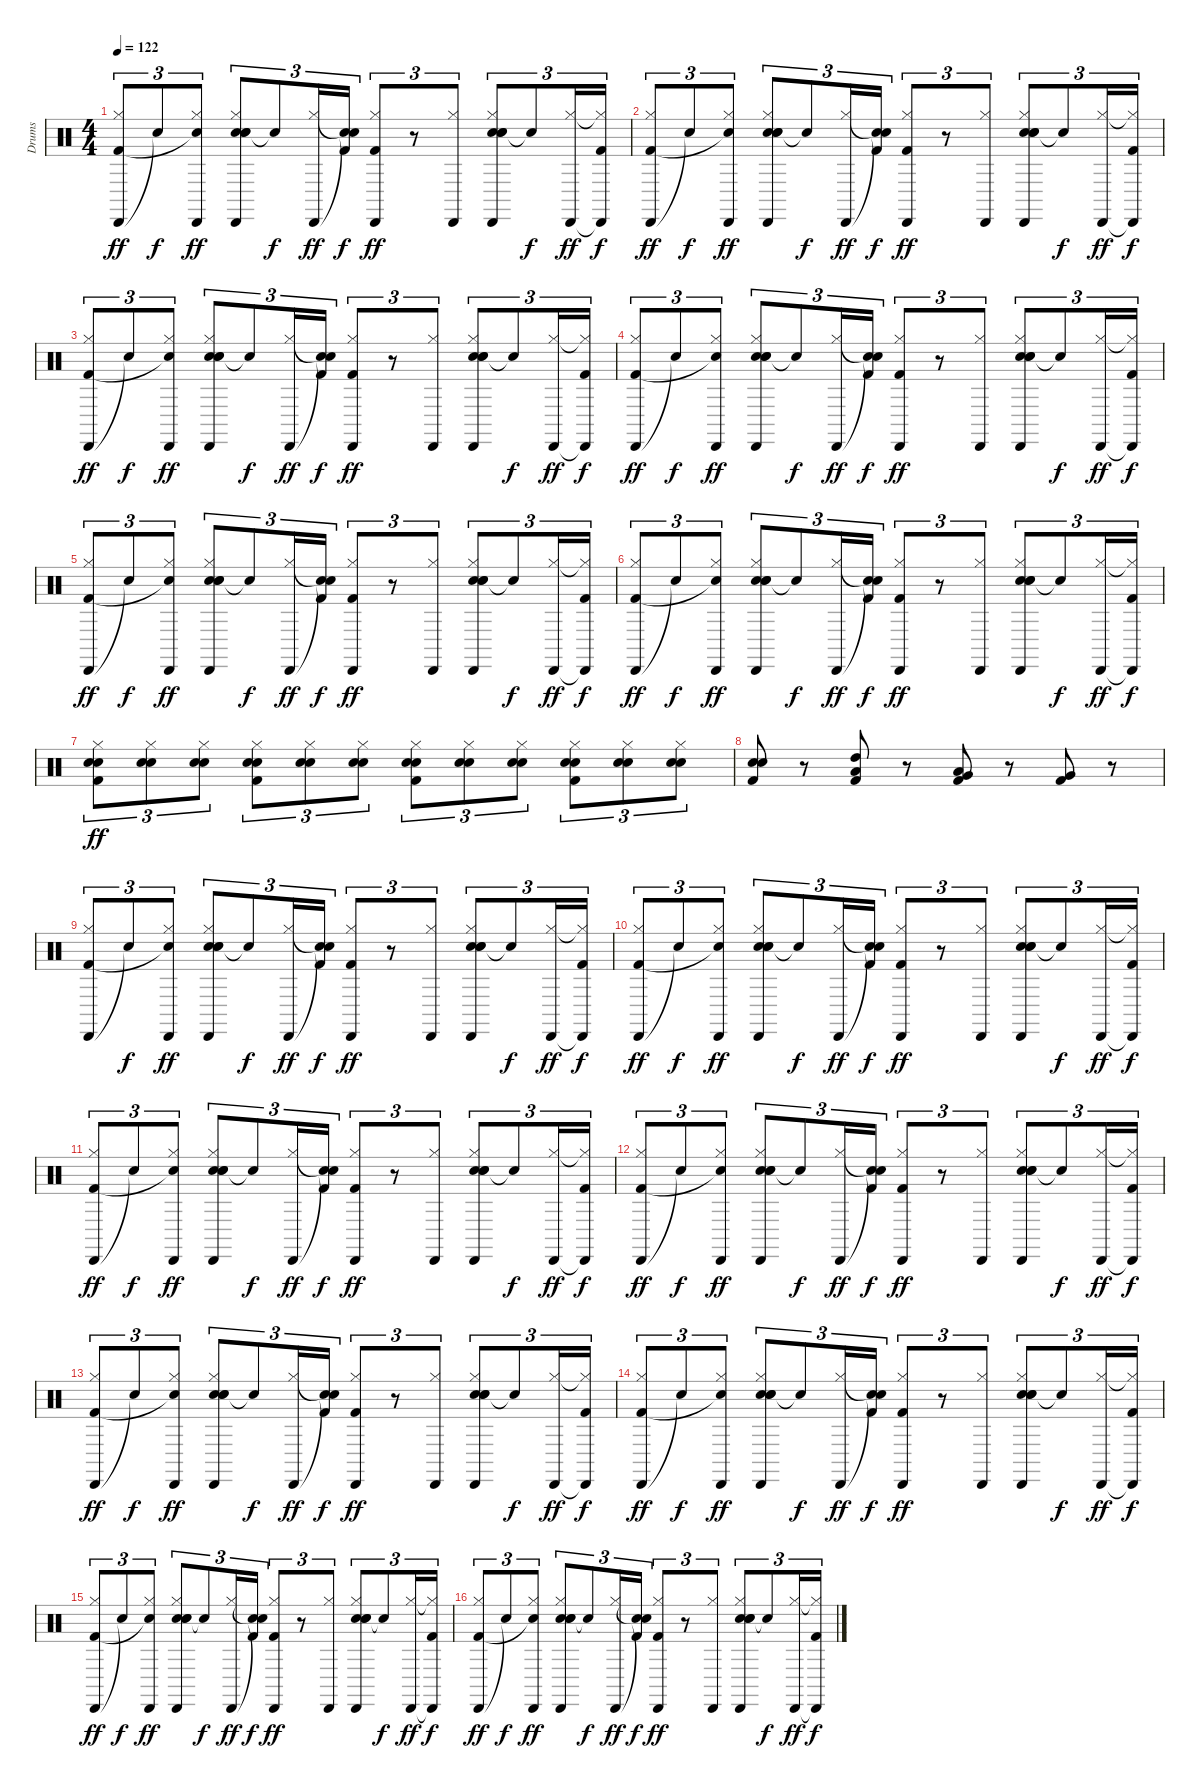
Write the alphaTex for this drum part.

\track ("Drums" "Drums") {instrument percussion}
\staff {score}
\articulation defaults
\ts (4 4)
\tempo 122
\clef neutral
\ks c
("Cabasa (hit)" "Hi-Hat (closed)" "Kick (hit) 2").8{tu (3 2) dy ff} "Snare (hit)"{t}.8{tu (3 2) dy f} ("Cabasa (hit)" "Hi-Hat (closed)" "Snare (hit)"{t}).8{tu (3 2) dy ff} ("Hand Clap (hit)" "Cabasa (hit)" "Hi-Hat (closed)" "Snare (hit) 2" "Hand Clap (hit)").8{tu (3 2)} "Snare (hit)"{t}.8{tu (3 2) dy f} ("Cabasa (hit)" "Hi-Hat (closed)").16{tu (3 2) dy ff} ("Snare (hit)"{t} "Snare (hit)"{t} "Kick (hit) 2").16{tu (3 2) dy f} ("Cabasa (hit)" "Hi-Hat (closed)" "Kick (hit) 2").8{tu (3 2) dy ff} r.8{tu (3 2)} ("Cabasa (hit)" "Hi-Hat (closed)").8{tu (3 2)} ("Hand Clap (hit)" "Cabasa (hit)" "Hi-Hat (closed)" "Snare (hit) 2" "Hand Clap (hit)").8{tu (3 2)} "Snare (hit)"{t}.8{tu (3 2) dy f} ("Cabasa (hit)" "Hi-Hat (closed)").16{tu (3 2) dy ff} ("Cabasa (hit)"{t} "Hi-Hat (closed)"{t} "Kick (hit) 2").16{tu (3 2) dy f} |
("Cabasa (hit)" "Hi-Hat (closed)" "Kick (hit) 2").8{tu (3 2) dy ff} "Snare (hit)"{t}.8{tu (3 2) dy f} ("Cabasa (hit)" "Hi-Hat (closed)" "Snare (hit)"{t}).8{tu (3 2) dy ff} ("Hand Clap (hit)" "Cabasa (hit)" "Hi-Hat (closed)" "Snare (hit) 2" "Hand Clap (hit)").8{tu (3 2)} "Snare (hit)"{t}.8{tu (3 2) dy f} ("Cabasa (hit)" "Hi-Hat (closed)").16{tu (3 2) dy ff} ("Snare (hit)"{t} "Snare (hit)"{t} "Kick (hit) 2").16{tu (3 2) dy f} ("Cabasa (hit)" "Hi-Hat (closed)" "Kick (hit) 2").8{tu (3 2) dy ff} r.8{tu (3 2)} ("Cabasa (hit)" "Hi-Hat (closed)").8{tu (3 2)} ("Hand Clap (hit)" "Cabasa (hit)" "Hi-Hat (closed)" "Snare (hit) 2" "Hand Clap (hit)").8{tu (3 2)} "Snare (hit)"{t}.8{tu (3 2) dy f} ("Cabasa (hit)" "Hi-Hat (closed)").16{tu (3 2) dy ff} ("Cabasa (hit)"{t} "Hi-Hat (closed)"{t} "Kick (hit) 2").16{tu (3 2) dy f} |
("Cabasa (hit)" "Hi-Hat (closed)" "Kick (hit) 2").8{tu (3 2) dy ff} "Snare (hit)"{t}.8{tu (3 2) dy f} ("Cabasa (hit)" "Hi-Hat (closed)" "Snare (hit)"{t}).8{tu (3 2) dy ff} ("Hand Clap (hit)" "Cabasa (hit)" "Hi-Hat (closed)" "Snare (hit) 2" "Hand Clap (hit)").8{tu (3 2)} "Snare (hit)"{t}.8{tu (3 2) dy f} ("Cabasa (hit)" "Hi-Hat (closed)").16{tu (3 2) dy ff} ("Snare (hit)"{t} "Snare (hit)"{t} "Kick (hit) 2").16{tu (3 2) dy f} ("Cabasa (hit)" "Hi-Hat (closed)" "Kick (hit) 2").8{tu (3 2) dy ff} r.8{tu (3 2)} ("Cabasa (hit)" "Hi-Hat (closed)").8{tu (3 2)} ("Hand Clap (hit)" "Cabasa (hit)" "Hi-Hat (closed)" "Snare (hit) 2" "Hand Clap (hit)").8{tu (3 2)} "Snare (hit)"{t}.8{tu (3 2) dy f} ("Cabasa (hit)" "Hi-Hat (closed)").16{tu (3 2) dy ff} ("Cabasa (hit)"{t} "Hi-Hat (closed)"{t} "Kick (hit) 2").16{tu (3 2) dy f} |
("Cabasa (hit)" "Hi-Hat (closed)" "Kick (hit) 2").8{tu (3 2) dy ff} "Snare (hit)"{t}.8{tu (3 2) dy f} ("Cabasa (hit)" "Hi-Hat (closed)" "Snare (hit)"{t}).8{tu (3 2) dy ff} ("Hand Clap (hit)" "Cabasa (hit)" "Hi-Hat (closed)" "Snare (hit) 2" "Hand Clap (hit)").8{tu (3 2)} "Snare (hit)"{t}.8{tu (3 2) dy f} ("Cabasa (hit)" "Hi-Hat (closed)").16{tu (3 2) dy ff} ("Snare (hit)"{t} "Snare (hit)"{t} "Kick (hit) 2").16{tu (3 2) dy f} ("Cabasa (hit)" "Hi-Hat (closed)" "Kick (hit) 2").8{tu (3 2) dy ff} r.8{tu (3 2)} ("Cabasa (hit)" "Hi-Hat (closed)").8{tu (3 2)} ("Hand Clap (hit)" "Cabasa (hit)" "Hi-Hat (closed)" "Snare (hit) 2" "Hand Clap (hit)").8{tu (3 2)} "Snare (hit)"{t}.8{tu (3 2) dy f} ("Cabasa (hit)" "Hi-Hat (closed)").16{tu (3 2) dy ff} ("Cabasa (hit)"{t} "Hi-Hat (closed)"{t} "Kick (hit) 2").16{tu (3 2) dy f} |
("Cabasa (hit)" "Hi-Hat (closed)" "Kick (hit) 2").8{tu (3 2) dy ff} "Snare (hit)"{t}.8{tu (3 2) dy f} ("Cabasa (hit)" "Hi-Hat (closed)" "Snare (hit)"{t}).8{tu (3 2) dy ff} ("Hand Clap (hit)" "Cabasa (hit)" "Hi-Hat (closed)" "Snare (hit) 2" "Hand Clap (hit)").8{tu (3 2)} "Snare (hit)"{t}.8{tu (3 2) dy f} ("Cabasa (hit)" "Hi-Hat (closed)").16{tu (3 2) dy ff} ("Snare (hit)"{t} "Snare (hit)"{t} "Kick (hit) 2").16{tu (3 2) dy f} ("Cabasa (hit)" "Hi-Hat (closed)" "Kick (hit) 2").8{tu (3 2) dy ff} r.8{tu (3 2)} ("Cabasa (hit)" "Hi-Hat (closed)").8{tu (3 2)} ("Hand Clap (hit)" "Cabasa (hit)" "Hi-Hat (closed)" "Snare (hit) 2" "Hand Clap (hit)").8{tu (3 2)} "Snare (hit)"{t}.8{tu (3 2) dy f} ("Cabasa (hit)" "Hi-Hat (closed)").16{tu (3 2) dy ff} ("Cabasa (hit)"{t} "Hi-Hat (closed)"{t} "Kick (hit) 2").16{tu (3 2) dy f} |
("Cabasa (hit)" "Hi-Hat (closed)" "Kick (hit) 2").8{tu (3 2) dy ff} "Snare (hit)"{t}.8{tu (3 2) dy f} ("Cabasa (hit)" "Hi-Hat (closed)" "Snare (hit)"{t}).8{tu (3 2) dy ff} ("Hand Clap (hit)" "Cabasa (hit)" "Hi-Hat (closed)" "Snare (hit) 2" "Hand Clap (hit)").8{tu (3 2)} "Snare (hit)"{t}.8{tu (3 2) dy f} ("Cabasa (hit)" "Hi-Hat (closed)").16{tu (3 2) dy ff} ("Snare (hit)"{t} "Snare (hit)"{t} "Kick (hit) 2").16{tu (3 2) dy f} ("Cabasa (hit)" "Hi-Hat (closed)" "Kick (hit) 2").8{tu (3 2) dy ff} r.8{tu (3 2)} ("Cabasa (hit)" "Hi-Hat (closed)").8{tu (3 2)} ("Hand Clap (hit)" "Cabasa (hit)" "Hi-Hat (closed)" "Snare (hit) 2" "Hand Clap (hit)").8{tu (3 2)} "Snare (hit)"{t}.8{tu (3 2) dy f} ("Cabasa (hit)" "Hi-Hat (closed)").16{tu (3 2) dy ff} ("Cabasa (hit)"{t} "Hi-Hat (closed)"{t} "Kick (hit) 2").16{tu (3 2) dy f} |
("Hand Clap (hit)" "Hi-Hat (closed)" "Snare (hit) 2" "Kick (hit) 2").8{tu (3 2) dy ff} ("Hand Clap (hit)" "Hi-Hat (closed)" "Snare (hit) 2").8{tu (3 2)} ("Hand Clap (hit)" "Hi-Hat (closed)" "Snare (hit) 2").8{tu (3 2)} ("Hand Clap (hit)" "Hi-Hat (closed)" "Snare (hit) 2" "Kick (hit) 2").8{tu (3 2)} ("Hand Clap (hit)" "Hi-Hat (closed)" "Snare (hit) 2").8{tu (3 2)} ("Hand Clap (hit)" "Hi-Hat (closed)" "Snare (hit) 2").8{tu (3 2)} ("Hand Clap (hit)" "Hi-Hat (closed)" "Snare (hit) 2" "Kick (hit) 2").8{tu (3 2)} ("Hand Clap (hit)" "Hi-Hat (closed)" "Snare (hit) 2").8{tu (3 2)} ("Hand Clap (hit)" "Hi-Hat (closed)" "Snare (hit) 2").8{tu (3 2)} ("Hand Clap (hit)" "Hi-Hat (closed)" "Snare (hit) 2" "Kick (hit) 2").8{tu (3 2)} ("Hand Clap (hit)" "Hi-Hat (closed)" "Snare (hit) 2").8{tu (3 2)} ("Hand Clap (hit)" "Hi-Hat (closed)" "Snare (hit) 2").8{tu (3 2)} |
("Hand Clap (hit)" "Snare (hit) 2" "Kick (hit) 2").8 r.8 ("High Tom (hit)" "Low Tom (hit)" "Kick (hit) 2").8 r.8 ("Low Tom (hit)" "Very Low Tom (hit)" "Kick (hit) 2").8 r.8 ("Very Low Tom (hit)" "Kick (hit) 2").8 r.8 |
("Cabasa (hit)" "Hi-Hat (closed)" "Kick (hit) 2").8{tu (3 2)} "Snare (hit)"{t}.8{tu (3 2) dy f} ("Cabasa (hit)" "Hi-Hat (closed)" "Snare (hit)"{t}).8{tu (3 2) dy ff} ("Hand Clap (hit)" "Cabasa (hit)" "Hi-Hat (closed)" "Snare (hit) 2" "Hand Clap (hit)").8{tu (3 2)} "Snare (hit)"{t}.8{tu (3 2) dy f} ("Cabasa (hit)" "Hi-Hat (closed)").16{tu (3 2) dy ff} ("Snare (hit)"{t} "Snare (hit)"{t} "Kick (hit) 2").16{tu (3 2) dy f} ("Cabasa (hit)" "Hi-Hat (closed)" "Kick (hit) 2").8{tu (3 2) dy ff} r.8{tu (3 2)} ("Cabasa (hit)" "Hi-Hat (closed)").8{tu (3 2)} ("Hand Clap (hit)" "Cabasa (hit)" "Hi-Hat (closed)" "Snare (hit) 2" "Hand Clap (hit)").8{tu (3 2)} "Snare (hit)"{t}.8{tu (3 2) dy f} ("Cabasa (hit)" "Hi-Hat (closed)").16{tu (3 2) dy ff} ("Cabasa (hit)"{t} "Hi-Hat (closed)"{t} "Kick (hit) 2").16{tu (3 2) dy f} |
("Cabasa (hit)" "Hi-Hat (closed)" "Kick (hit) 2").8{tu (3 2) dy ff} "Snare (hit)"{t}.8{tu (3 2) dy f} ("Cabasa (hit)" "Hi-Hat (closed)" "Snare (hit)"{t}).8{tu (3 2) dy ff} ("Hand Clap (hit)" "Cabasa (hit)" "Hi-Hat (closed)" "Snare (hit) 2" "Hand Clap (hit)").8{tu (3 2)} "Snare (hit)"{t}.8{tu (3 2) dy f} ("Cabasa (hit)" "Hi-Hat (closed)").16{tu (3 2) dy ff} ("Snare (hit)"{t} "Snare (hit)"{t} "Kick (hit) 2").16{tu (3 2) dy f} ("Cabasa (hit)" "Hi-Hat (closed)" "Kick (hit) 2").8{tu (3 2) dy ff} r.8{tu (3 2)} ("Cabasa (hit)" "Hi-Hat (closed)").8{tu (3 2)} ("Hand Clap (hit)" "Cabasa (hit)" "Hi-Hat (closed)" "Snare (hit) 2" "Hand Clap (hit)").8{tu (3 2)} "Snare (hit)"{t}.8{tu (3 2) dy f} ("Cabasa (hit)" "Hi-Hat (closed)").16{tu (3 2) dy ff} ("Cabasa (hit)"{t} "Hi-Hat (closed)"{t} "Kick (hit) 2").16{tu (3 2) dy f} |
("Cabasa (hit)" "Hi-Hat (closed)" "Kick (hit) 2").8{tu (3 2) dy ff} "Snare (hit)"{t}.8{tu (3 2) dy f} ("Cabasa (hit)" "Hi-Hat (closed)" "Snare (hit)"{t}).8{tu (3 2) dy ff} ("Hand Clap (hit)" "Cabasa (hit)" "Hi-Hat (closed)" "Snare (hit) 2" "Hand Clap (hit)").8{tu (3 2)} "Snare (hit)"{t}.8{tu (3 2) dy f} ("Cabasa (hit)" "Hi-Hat (closed)").16{tu (3 2) dy ff} ("Snare (hit)"{t} "Snare (hit)"{t} "Kick (hit) 2").16{tu (3 2) dy f} ("Cabasa (hit)" "Hi-Hat (closed)" "Kick (hit) 2").8{tu (3 2) dy ff} r.8{tu (3 2)} ("Cabasa (hit)" "Hi-Hat (closed)").8{tu (3 2)} ("Hand Clap (hit)" "Cabasa (hit)" "Hi-Hat (closed)" "Snare (hit) 2" "Hand Clap (hit)").8{tu (3 2)} "Snare (hit)"{t}.8{tu (3 2) dy f} ("Cabasa (hit)" "Hi-Hat (closed)").16{tu (3 2) dy ff} ("Cabasa (hit)"{t} "Hi-Hat (closed)"{t} "Kick (hit) 2").16{tu (3 2) dy f} |
("Cabasa (hit)" "Hi-Hat (closed)" "Kick (hit) 2").8{tu (3 2) dy ff} "Snare (hit)"{t}.8{tu (3 2) dy f} ("Cabasa (hit)" "Hi-Hat (closed)" "Snare (hit)"{t}).8{tu (3 2) dy ff} ("Hand Clap (hit)" "Cabasa (hit)" "Hi-Hat (closed)" "Snare (hit) 2" "Hand Clap (hit)").8{tu (3 2)} "Snare (hit)"{t}.8{tu (3 2) dy f} ("Cabasa (hit)" "Hi-Hat (closed)").16{tu (3 2) dy ff} ("Snare (hit)"{t} "Snare (hit)"{t} "Kick (hit) 2").16{tu (3 2) dy f} ("Cabasa (hit)" "Hi-Hat (closed)" "Kick (hit) 2").8{tu (3 2) dy ff} r.8{tu (3 2)} ("Cabasa (hit)" "Hi-Hat (closed)").8{tu (3 2)} ("Hand Clap (hit)" "Cabasa (hit)" "Hi-Hat (closed)" "Snare (hit) 2" "Hand Clap (hit)").8{tu (3 2)} "Snare (hit)"{t}.8{tu (3 2) dy f} ("Cabasa (hit)" "Hi-Hat (closed)").16{tu (3 2) dy ff} ("Cabasa (hit)"{t} "Hi-Hat (closed)"{t} "Kick (hit) 2").16{tu (3 2) dy f} |
("Cabasa (hit)" "Hi-Hat (closed)" "Kick (hit) 2").8{tu (3 2) dy ff} "Snare (hit)"{t}.8{tu (3 2) dy f} ("Cabasa (hit)" "Hi-Hat (closed)" "Snare (hit)"{t}).8{tu (3 2) dy ff} ("Hand Clap (hit)" "Cabasa (hit)" "Hi-Hat (closed)" "Snare (hit) 2" "Hand Clap (hit)").8{tu (3 2)} "Snare (hit)"{t}.8{tu (3 2) dy f} ("Cabasa (hit)" "Hi-Hat (closed)").16{tu (3 2) dy ff} ("Snare (hit)"{t} "Snare (hit)"{t} "Kick (hit) 2").16{tu (3 2) dy f} ("Cabasa (hit)" "Hi-Hat (closed)" "Kick (hit) 2").8{tu (3 2) dy ff} r.8{tu (3 2)} ("Cabasa (hit)" "Hi-Hat (closed)").8{tu (3 2)} ("Hand Clap (hit)" "Cabasa (hit)" "Hi-Hat (closed)" "Snare (hit) 2" "Hand Clap (hit)").8{tu (3 2)} "Snare (hit)"{t}.8{tu (3 2) dy f} ("Cabasa (hit)" "Hi-Hat (closed)").16{tu (3 2) dy ff} ("Cabasa (hit)"{t} "Hi-Hat (closed)"{t} "Kick (hit) 2").16{tu (3 2) dy f} |
("Cabasa (hit)" "Hi-Hat (closed)" "Kick (hit) 2").8{tu (3 2) dy ff} "Snare (hit)"{t}.8{tu (3 2) dy f} ("Cabasa (hit)" "Hi-Hat (closed)" "Snare (hit)"{t}).8{tu (3 2) dy ff} ("Hand Clap (hit)" "Cabasa (hit)" "Hi-Hat (closed)" "Snare (hit) 2" "Hand Clap (hit)").8{tu (3 2)} "Snare (hit)"{t}.8{tu (3 2) dy f} ("Cabasa (hit)" "Hi-Hat (closed)").16{tu (3 2) dy ff} ("Snare (hit)"{t} "Snare (hit)"{t} "Kick (hit) 2").16{tu (3 2) dy f} ("Cabasa (hit)" "Hi-Hat (closed)" "Kick (hit) 2").8{tu (3 2) dy ff} r.8{tu (3 2)} ("Cabasa (hit)" "Hi-Hat (closed)").8{tu (3 2)} ("Hand Clap (hit)" "Cabasa (hit)" "Hi-Hat (closed)" "Snare (hit) 2" "Hand Clap (hit)").8{tu (3 2)} "Snare (hit)"{t}.8{tu (3 2) dy f} ("Cabasa (hit)" "Hi-Hat (closed)").16{tu (3 2) dy ff} ("Cabasa (hit)"{t} "Hi-Hat (closed)"{t} "Kick (hit) 2").16{tu (3 2) dy f} |
("Cabasa (hit)" "Hi-Hat (closed)" "Kick (hit) 2").8{tu (3 2) dy ff} "Snare (hit)"{t}.8{tu (3 2) dy f} ("Cabasa (hit)" "Hi-Hat (closed)" "Snare (hit)"{t}).8{tu (3 2) dy ff} ("Hand Clap (hit)" "Cabasa (hit)" "Hi-Hat (closed)" "Snare (hit) 2" "Hand Clap (hit)").8{tu (3 2)} "Snare (hit)"{t}.8{tu (3 2) dy f} ("Cabasa (hit)" "Hi-Hat (closed)").16{tu (3 2) dy ff} ("Snare (hit)"{t} "Snare (hit)"{t} "Kick (hit) 2").16{tu (3 2) dy f} ("Cabasa (hit)" "Hi-Hat (closed)" "Kick (hit) 2").8{tu (3 2) dy ff} r.8{tu (3 2)} ("Cabasa (hit)" "Hi-Hat (closed)").8{tu (3 2)} ("Hand Clap (hit)" "Cabasa (hit)" "Hi-Hat (closed)" "Snare (hit) 2" "Hand Clap (hit)").8{tu (3 2)} "Snare (hit)"{t}.8{tu (3 2) dy f} ("Cabasa (hit)" "Hi-Hat (closed)").16{tu (3 2) dy ff} ("Cabasa (hit)"{t} "Hi-Hat (closed)"{t} "Kick (hit) 2").16{tu (3 2) dy f} |
("Cabasa (hit)" "Hi-Hat (closed)" "Kick (hit) 2").8{tu (3 2) dy ff} "Snare (hit)"{t}.8{tu (3 2) dy f} ("Cabasa (hit)" "Hi-Hat (closed)" "Snare (hit)"{t}).8{tu (3 2) dy ff} ("Hand Clap (hit)" "Cabasa (hit)" "Hi-Hat (closed)" "Snare (hit) 2" "Hand Clap (hit)").8{tu (3 2)} "Snare (hit)"{t}.8{tu (3 2) dy f} ("Cabasa (hit)" "Hi-Hat (closed)").16{tu (3 2) dy ff} ("Snare (hit)"{t} "Snare (hit)"{t} "Kick (hit) 2").16{tu (3 2) dy f} ("Cabasa (hit)" "Hi-Hat (closed)" "Kick (hit) 2").8{tu (3 2) dy ff} r.8{tu (3 2)} ("Cabasa (hit)" "Hi-Hat (closed)").8{tu (3 2)} ("Hand Clap (hit)" "Cabasa (hit)" "Hi-Hat (closed)" "Snare (hit) 2" "Hand Clap (hit)").8{tu (3 2)} "Snare (hit)"{t}.8{tu (3 2) dy f} ("Cabasa (hit)" "Hi-Hat (closed)").16{tu (3 2) dy ff} ("Cabasa (hit)"{t} "Hi-Hat (closed)"{t} "Kick (hit) 2").16{tu (3 2) dy f}
